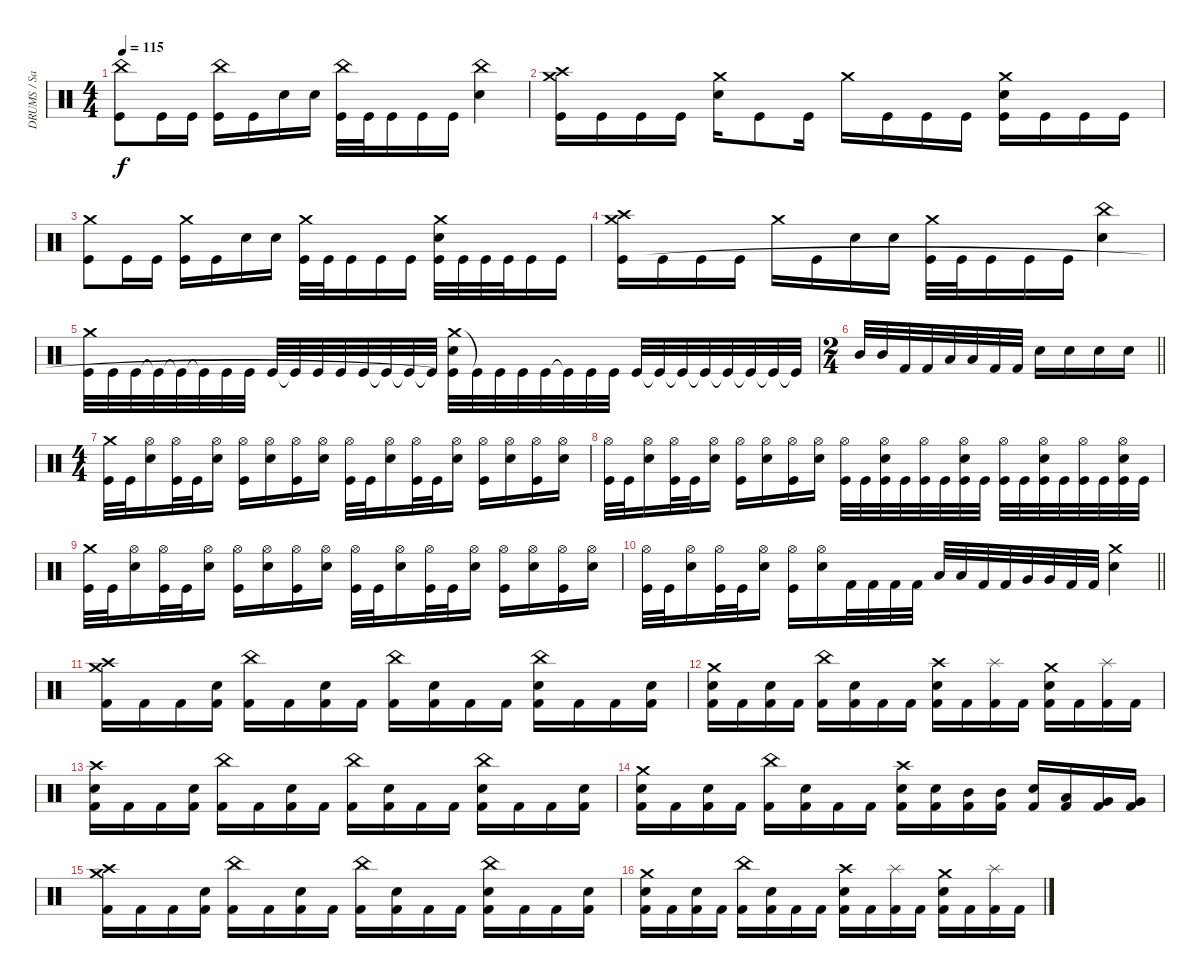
\track ("DRUMS / Sasha" "DRUMS / Sa") {instrument percussion}
\staff {score}
\articulation defaults
\ts (4 4)
\tempo 115
\clef neutral
\ks c
("China (hit)" "Kick (hit)").8{dy f} "Kick (hit)".16 "Kick (hit)".16 ("China (hit)" "Kick (hit)").16 "Kick (hit)".16 "Snare (hit) 2".16 "Snare (hit) 2".16 ("China (hit)" "Kick (hit)").32 "Kick (hit)".32 "Kick (hit)".16 "Kick (hit)".16 "Kick (hit)".16 ("China (hit)" "Snare (hit) 2").4 |
("Crash high (hit)" "Crash medium (hit)" "Kick (hit)").16 "Kick (hit)".16 "Kick (hit)".16 "Kick (hit)".16 ("Crash medium (hit)" "Snare (hit) 2").16 "Kick (hit)".8 "Kick (hit)".16 "Crash medium (hit)".16 "Kick (hit)".16 "Kick (hit)".16 "Kick (hit)".16 ("Kick (hit)" "Crash medium (hit)" "Snare (hit) 2").16 "Kick (hit)".16 "Kick (hit)".16 "Kick (hit)".16 |
("Crash medium (hit)" "Kick (hit)").8 "Kick (hit)".16 "Kick (hit)".16 ("Crash medium (hit)" "Kick (hit)").16 "Kick (hit)".16 "Snare (hit) 2".16 "Snare (hit) 2".16 ("Crash medium (hit)" "Kick (hit)").32 "Kick (hit)".32 "Kick (hit)".16 "Kick (hit)".16 "Kick (hit)".16 ("Crash medium (hit)" "Snare (hit) 2" "Kick (hit)").32 "Kick (hit)".32 "Kick (hit)".32 "Kick (hit)".32 "Kick (hit)".16 "Kick (hit)".16 |
("Crash high (hit)" "Crash medium (hit)" "Kick (hit)").16 "Kick (hit)".16 "Kick (hit)".16 "Kick (hit)".16 "Crash medium (hit)".16 "Kick (hit)".16 "Snare (hit) 2".16 "Snare (hit) 2".16 ("Crash medium (hit)" "Kick (hit)").32 "Kick (hit)".32 "Kick (hit)".16 "Kick (hit)".16 "Kick (hit)".16 ("China (hit)" "Snare (hit) 2").4 |
("Crash medium (hit)" "Kick (hit)").32 "Kick (hit)".32 "Kick (hit)".32 "Kick (hit)"{t}.32 "Kick (hit)"{t}.32 "Kick (hit)"{t}.32 "Kick (hit)".32 "Kick (hit)".32 "Kick (hit)".32 "Kick (hit)"{t}.32 "Kick (hit)".32 "Kick (hit)".32 "Kick (hit)".32 "Kick (hit)"{t}.32 "Kick (hit)"{t}.32 "Kick (hit)"{t}.32 ("Crash medium (hit)" "Snare (hit) 2" "Kick (hit)"{t}).32 "Kick (hit)"{t}.32 "Kick (hit)".32 "Kick (hit)".32 "Kick (hit)".32 "Kick (hit)"{t}.32 "Kick (hit)".32 "Kick (hit)".32 "Kick (hit)".32 "Kick (hit)"{t}.32 "Kick (hit)"{t}.32 "Kick (hit)"{t}.32 "Kick (hit)"{t}.32 "Kick (hit)"{t}.32 "Kick (hit)"{t}.32 "Kick (hit)"{t}.32 |
\ts (2 4)
\barLineRight lightlight "Mid Tom (hit)".32 "Mid Tom (hit)".32 "Kick (hit) 2".32 "Kick (hit) 2".32 "Low Tom (hit)".32 "Low Tom (hit)".32 "Kick (hit) 2".32 "Kick (hit) 2".32 "Electric Snare (hit)".16 "Electric Snare (hit)".16 "Electric Snare (hit)".16 "Electric Snare (hit)".16
|
\ts (4 4)
("Kick (hit)" "Crash medium (hit)").32 "Kick (hit)".32 ("Snare (hit) 2" "Hi-Hat (open)").16 ("Kick (hit)" "Hi-Hat (open)").32 "Kick (hit)".32 ("Snare (hit) 2" "Hi-Hat (open)").16 ("Kick (hit)" "Hi-Hat (open)").16 ("Snare (hit) 2" "Hi-Hat (open)").16 ("Kick (hit)" "Hi-Hat (open)").16 ("Snare (hit) 2" "Hi-Hat (open)").16 ("Kick (hit)" "Hi-Hat (open)").32 "Kick (hit)".32 ("Snare (hit) 2" "Hi-Hat (open)").16 ("Kick (hit)" "Hi-Hat (open)").32 "Kick (hit)".32 ("Snare (hit) 2" "Hi-Hat (open)").16 ("Kick (hit)" "Hi-Hat (open)").16 ("Snare (hit) 2" "Hi-Hat (open)").16 ("Kick (hit)" "Hi-Hat (open)").16 ("Snare (hit) 2" "Hi-Hat (open)").16 |
("Kick (hit)" "Hi-Hat (open)").32 "Kick (hit)".32 ("Snare (hit) 2" "Hi-Hat (open)").16 ("Kick (hit)" "Hi-Hat (open)").32 "Kick (hit)".32 ("Snare (hit) 2" "Hi-Hat (open)").16 ("Kick (hit)" "Hi-Hat (open)").16 ("Snare (hit) 2" "Hi-Hat (open)").16 ("Kick (hit)" "Hi-Hat (open)").16 ("Snare (hit) 2" "Hi-Hat (open)").16 ("Kick (hit)" "Hi-Hat (open)").32 "Kick (hit)".32 ("Hi-Hat (open)" "Kick (hit)" "Snare (hit) 2").32 "Kick (hit)".32 ("Kick (hit)" "Hi-Hat (open)").32 "Kick (hit)".32 ("Kick (hit)" "Hi-Hat (open)" "Snare (hit) 2").32 "Kick (hit)".32 ("Kick (hit)" "Hi-Hat (open)").32 "Kick (hit)".32 ("Kick (hit)" "Hi-Hat (open)" "Snare (hit) 2").32 "Kick (hit)".32 ("Kick (hit)" "Hi-Hat (open)").32 "Kick (hit)".32 ("Kick (hit)" "Hi-Hat (open)" "Snare (hit) 2").32 "Kick (hit)".32 |
("Kick (hit)" "Crash medium (hit)").32 "Kick (hit)".32 ("Snare (hit) 2" "Hi-Hat (open)").16 ("Kick (hit)" "Hi-Hat (open)").32 "Kick (hit)".32 ("Snare (hit) 2" "Hi-Hat (open)").16 ("Kick (hit)" "Hi-Hat (open)").16 ("Snare (hit) 2" "Hi-Hat (open)").16 ("Kick (hit)" "Hi-Hat (open)").16 ("Snare (hit) 2" "Hi-Hat (open)").16 ("Kick (hit)" "Hi-Hat (open)").32 "Kick (hit)".32 ("Snare (hit) 2" "Hi-Hat (open)").16 ("Kick (hit)" "Hi-Hat (open)").32 "Kick (hit)".32 ("Snare (hit) 2" "Hi-Hat (open)").16 ("Kick (hit)" "Hi-Hat (open)").16 ("Snare (hit) 2" "Hi-Hat (open)").16 ("Kick (hit)" "Hi-Hat (open)").16 ("Snare (hit) 2" "Hi-Hat (open)").16 |
\barLineRight lightlight
("Kick (hit)" "Hi-Hat (open)").32 "Kick (hit)".32 ("Snare (hit) 2" "Hi-Hat (open)").16 ("Kick (hit)" "Hi-Hat (open)").32 "Kick (hit)".32 ("Snare (hit) 2" "Hi-Hat (open)").16 ("Kick (hit)" "Hi-Hat (open)").16 ("Hi-Hat (open)" "Snare (hit) 2").16 "Kick (hit) 2".32 "Kick (hit) 2".32 "Kick (hit) 2".32 "Kick (hit) 2".32 "Low Tom (hit)".32 "Low Tom (hit)".32 "Kick (hit) 2".32 "Kick (hit) 2".32 "Very Low Tom (hit)".32 "Very Low Tom (hit)".32 "Kick (hit) 2".32 "Kick (hit) 2".32 ("Crash medium (hit)" "Electric Snare (hit)").4 |
("Crash high (hit)" "Crash medium (hit)" "Kick (hit) 2").16 "Kick (hit) 2".16 "Kick (hit) 2".16 ("Electric Snare (hit)" "Kick (hit) 2").16 ("China (hit)" "Kick (hit) 2").16 "Kick (hit) 2".16 ("Electric Snare (hit)" "Kick (hit) 2").16 "Kick (hit) 2".16 ("China (hit)" "Kick (hit) 2").16 ("Electric Snare (hit)" "Kick (hit) 2").16 "Kick (hit) 2".16 "Kick (hit) 2".16 ("China (hit)" "Electric Snare (hit)" "Kick (hit) 2").16 "Kick (hit) 2".16 "Kick (hit) 2".16 ("Electric Snare (hit)" "Kick (hit) 2").16 |
("Crash medium (hit)" "Electric Snare (hit)" "Kick (hit) 2").16 "Kick (hit) 2".16 ("Electric Snare (hit)" "Kick (hit) 2").16 "Kick (hit) 2".16 ("China (hit)" "Kick (hit) 2").16 ("Electric Snare (hit)" "Kick (hit) 2").16 "Kick (hit) 2".16 "Kick (hit) 2".16 ("Crash high (hit)" "Electric Snare (hit)" "Kick (hit) 2").16 "Kick (hit) 2".16 ("Splash (hit)" "Kick (hit) 2").16 "Kick (hit) 2".16 ("Crash medium (hit)" "Electric Snare (hit)" "Kick (hit) 2").16 "Kick (hit) 2".16 ("Splash (hit)" "Kick (hit) 2").16 "Kick (hit) 2".16 |
("Crash high (hit)" "Electric Snare (hit)" "Kick (hit) 2").16 "Kick (hit) 2".16 "Kick (hit) 2".16 ("Electric Snare (hit)" "Kick (hit) 2").16 ("China (hit)" "Kick (hit) 2").16 "Kick (hit) 2".16 ("Electric Snare (hit)" "Kick (hit) 2").16 "Kick (hit) 2".16 ("China (hit)" "Kick (hit) 2").16 ("Electric Snare (hit)" "Kick (hit) 2").16 "Kick (hit) 2".16 "Kick (hit) 2".16 ("China (hit)" "Electric Snare (hit)" "Kick (hit) 2").16 "Kick (hit) 2".16 "Kick (hit) 2".16 ("Electric Snare (hit)" "Kick (hit) 2").16 |
("Crash medium (hit)" "Electric Snare (hit)" "Kick (hit) 2").16 "Kick (hit) 2".16 ("Electric Snare (hit)" "Kick (hit) 2").16 "Kick (hit) 2".16 ("China (hit)" "Kick (hit) 2").16 ("Electric Snare (hit)" "Kick (hit) 2").16 "Kick (hit) 2".16 "Kick (hit) 2".16 ("Crash high (hit)" "Electric Snare (hit)" "Kick (hit) 2").16 ("Electric Snare (hit)" "Kick (hit) 2").16 ("Mid Tom (hit)" "Kick (hit) 2").16 ("Mid Tom (hit)" "Kick (hit) 2").16 ("Electric Snare (hit)" "Kick (hit) 2").16 ("Low Tom (hit)" "Kick (hit) 2").16 ("Very Low Tom (hit)" "Kick (hit) 2").16 ("Very Low Tom (hit)" "Kick (hit) 2").16 |
("Crash high (hit)" "Crash medium (hit)" "Kick (hit) 2").16 "Kick (hit) 2".16 "Kick (hit) 2".16 ("Electric Snare (hit)" "Kick (hit) 2").16 ("China (hit)" "Kick (hit) 2").16 "Kick (hit) 2".16 ("Electric Snare (hit)" "Kick (hit) 2").16 "Kick (hit) 2".16 ("China (hit)" "Kick (hit) 2").16 ("Electric Snare (hit)" "Kick (hit) 2").16 "Kick (hit) 2".16 "Kick (hit) 2".16 ("China (hit)" "Electric Snare (hit)" "Kick (hit) 2").16 "Kick (hit) 2".16 "Kick (hit) 2".16 ("Electric Snare (hit)" "Kick (hit) 2").16 |
("Crash medium (hit)" "Electric Snare (hit)" "Kick (hit) 2").16 "Kick (hit) 2".16 ("Electric Snare (hit)" "Kick (hit) 2").16 "Kick (hit) 2".16 ("China (hit)" "Kick (hit) 2").16 ("Electric Snare (hit)" "Kick (hit) 2").16 "Kick (hit) 2".16 "Kick (hit) 2".16 ("Crash high (hit)" "Electric Snare (hit)" "Kick (hit) 2").16 "Kick (hit) 2".16 ("Splash (hit)" "Kick (hit) 2").16 "Kick (hit) 2".16 ("Crash medium (hit)" "Electric Snare (hit)" "Kick (hit) 2").16 "Kick (hit) 2".16 ("Splash (hit)" "Kick (hit) 2").16 "Kick (hit) 2".16
